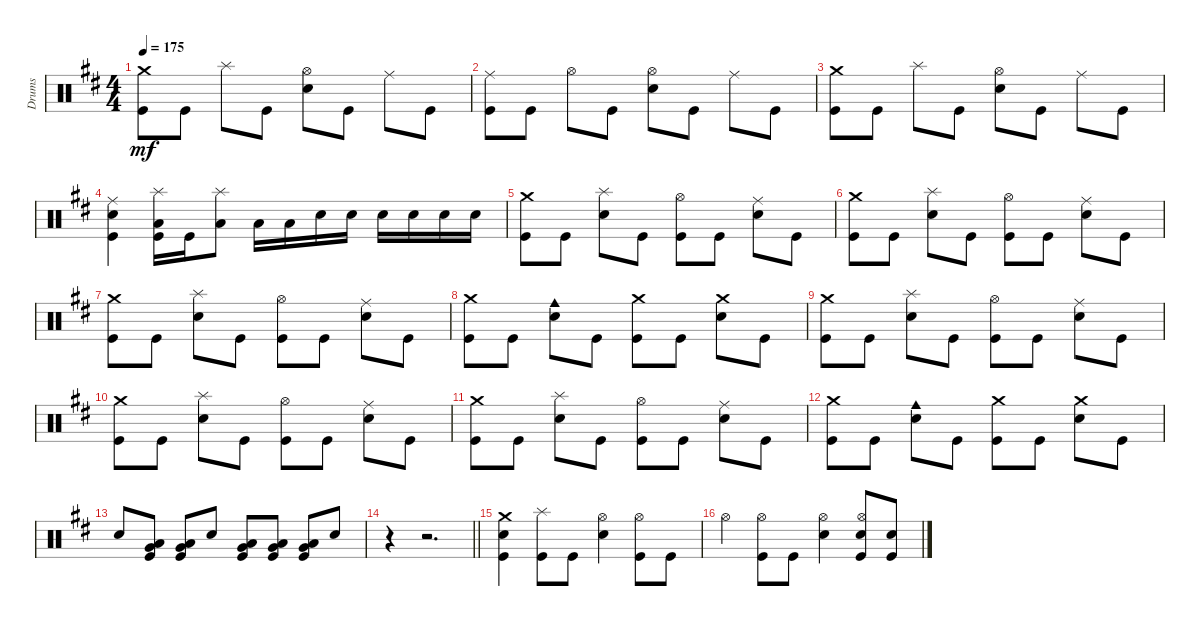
\track ("Drums" "Drums") {instrument percussion}
\staff {score}
\articulation defaults
\ts (4 4)
\tempo 175
\clef neutral
\ks d
("Crash medium (hit)" "Kick (hit)").8{dy mf} "Kick (hit)".8 "Splash (hit)".8 "Kick (hit)".8 ("Hi-Hat (open)" "Snare (hit) 2").8 "Kick (hit)".8 "Ride (middle)".8 "Kick (hit)".8 |
("Kick (hit)" "Ride (middle)").8 "Kick (hit)".8 "Hi-Hat (open)".8 "Kick (hit)".8 ("Hi-Hat (open)" "Snare (hit) 2").8 "Kick (hit)".8 "Ride (middle)".8 "Kick (hit)".8 |
("Crash medium (hit)" "Kick (hit)").8 "Kick (hit)".8 "Splash (hit)".8 "Kick (hit)".8 ("Hi-Hat (open)" "Snare (hit) 2").8 "Kick (hit)".8 "Ride (middle)".8 "Kick (hit)".8 |
("Ride (middle)" "Snare (hit) 2" "Kick (hit)").4 ("Kick (hit)" "Low Floor Tom (hit)" "Splash (hit)").16 "Kick (hit)".16 ("Low Floor Tom (hit)" "Splash (hit)").8 "Low Floor Tom (hit)".16 "Low Floor Tom (hit)".16 "Snare (hit) 2".16 "Snare (hit) 2".16 "Snare (hit) 2".16 "Snare (hit) 2".16 "Snare (hit) 2".16 "Snare (hit) 2".16 |
("Kick (hit)" "Crash medium (hit)").8 "Kick (hit)".8 ("Splash (hit)" "Snare (hit) 2").8 "Kick (hit)".8 ("Hi-Hat (open)" "Kick (hit)").8 "Kick (hit)".8 ("Snare (hit) 2" "Ride (middle)").8 "Kick (hit)".8 |
("Kick (hit)" "Crash medium (hit)").8 "Kick (hit)".8 ("Splash (hit)" "Snare (hit) 2").8 "Kick (hit)".8 ("Hi-Hat (open)" "Kick (hit)").8 "Kick (hit)".8 ("Snare (hit) 2" "Ride (middle)").8 "Kick (hit)".8 |
("Kick (hit)" "Crash medium (hit)").8 "Kick (hit)".8 ("Splash (hit)" "Snare (hit) 2").8 "Kick (hit)".8 ("Hi-Hat (open)" "Kick (hit)").8 "Kick (hit)".8 ("Snare (hit) 2" "Ride (middle)").8 "Kick (hit)".8 |
("Kick (hit)" "Crash medium (hit)").8 "Kick (hit)".8 ("Snare (hit) 2" "Cowbell medium (hit)").8 "Kick (hit)".8 ("Kick (hit)" "Crash medium (hit)").8 "Kick (hit)".8 ("Snare (hit) 2" "Crash medium (hit)").8 "Kick (hit)".8 |
("Kick (hit)" "Crash medium (hit)").8 "Kick (hit)".8 ("Splash (hit)" "Snare (hit) 2").8 "Kick (hit)".8 ("Hi-Hat (open)" "Kick (hit)").8 "Kick (hit)".8 ("Snare (hit) 2" "Ride (middle)").8 "Kick (hit)".8 |
("Kick (hit)" "Crash medium (hit)").8 "Kick (hit)".8 ("Splash (hit)" "Snare (hit) 2").8 "Kick (hit)".8 ("Hi-Hat (open)" "Kick (hit)").8 "Kick (hit)".8 ("Snare (hit) 2" "Ride (middle)").8 "Kick (hit)".8 |
("Kick (hit)" "Crash medium (hit)").8 "Kick (hit)".8 ("Splash (hit)" "Snare (hit) 2").8 "Kick (hit)".8 ("Hi-Hat (open)" "Kick (hit)").8 "Kick (hit)".8 ("Snare (hit) 2" "Ride (middle)").8 "Kick (hit)".8 |
("Kick (hit)" "Crash medium (hit)").8 "Kick (hit)".8 ("Snare (hit) 2" "Cowbell medium (hit)").8 "Kick (hit)".8 ("Kick (hit)" "Crash medium (hit)").8 "Kick (hit)".8 ("Snare (hit) 2" "Crash medium (hit)").8 "Kick (hit)".8 |
"Snare (hit) 2".8 ("Very Low Tom (hit)" "Kick (hit)" "Low Floor Tom (hit)").8 ("Very Low Tom (hit)" "Kick (hit)" "Low Floor Tom (hit)").8 "Snare (hit) 2".8 ("Very Low Tom (hit)" "Kick (hit)" "Low Floor Tom (hit)").8 ("Very Low Tom (hit)" "Kick (hit)" "Low Floor Tom (hit)").8 ("Very Low Tom (hit)" "Kick (hit)" "Low Floor Tom (hit)").8 "Snare (hit) 2".8 |
\barLineRight lightlight
r.4 r.2{d} |
("Kick (hit)" "Snare (hit) 2" "Crash medium (hit)").4 ("Kick (hit)" "Splash (hit)").8 "Kick (hit)".8 ("Snare (hit) 2" "Hi-Hat (open)").4 ("Hi-Hat (open)" "Kick (hit)").8 "Kick (hit)".8 |
"Hi-Hat (open)".4 ("Hi-Hat (open)" "Kick (hit)").8 "Kick (hit)".8 ("Snare (hit) 2" "Hi-Hat (open)").4 ("Hi-Hat (open)" "Kick (hit)" "Snare (hit) 2").8 ("Kick (hit)" "Snare (hit) 2").8
